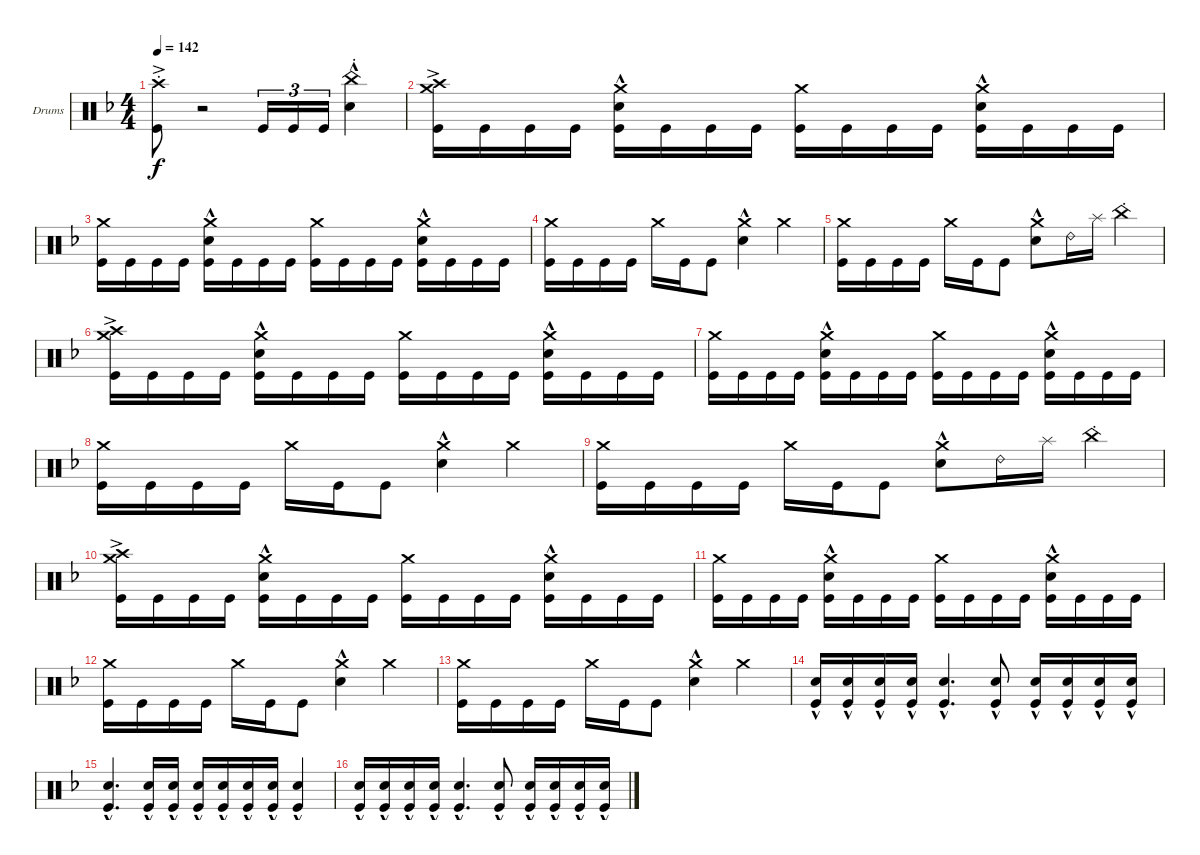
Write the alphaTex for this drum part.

\bracketExtendMode groupsimilarinstruments
\firstSystemTrackNameOrientation horizontal
\otherSystemsTrackNameOrientation horizontal
\track ("Drumkit" "Drums") {instrument percussion}
\staff {score}
\articulation defaults
\ts (4 4)
\tempo 142
\clef neutral
\ks dminor
("Kick (hit)" "Crash high (hit)"{ac st}).8{dy f} r.2 "Kick (hit)".16{tu (3 2)} "Kick (hit)".16{tu (3 2)} "Kick (hit)".16{tu (3 2)} ("Snare (hit) 2"{hac} "China (hit)"{st}).4 |
("Kick (hit)" "Crash medium (hit)" "Crash high (hit)"{ac}).16 "Kick (hit)".16 "Kick (hit)".16 "Kick (hit)".16 ("Kick (hit)" "Crash medium (hit)" "Snare (hit) 2"{hac}).16 "Kick (hit)".16 "Kick (hit)".16 "Kick (hit)".16 ("Kick (hit)" "Crash medium (hit)").16 "Kick (hit)".16 "Kick (hit)".16 "Kick (hit)".16 ("Kick (hit)" "Crash medium (hit)" "Snare (hit) 2"{hac}).16 "Kick (hit)".16 "Kick (hit)".16 "Kick (hit)".16 |
("Kick (hit)" "Crash medium (hit)").16 "Kick (hit)".16 "Kick (hit)".16 "Kick (hit)".16 ("Kick (hit)" "Crash medium (hit)" "Snare (hit) 2"{hac}).16 "Kick (hit)".16 "Kick (hit)".16 "Kick (hit)".16 ("Kick (hit)" "Crash medium (hit)").16 "Kick (hit)".16 "Kick (hit)".16 "Kick (hit)".16 ("Kick (hit)" "Crash medium (hit)" "Snare (hit) 2"{hac}).16 "Kick (hit)".16 "Kick (hit)".16 "Kick (hit)".16 |
("Kick (hit)" "Crash medium (hit)").16 "Kick (hit)".16 "Kick (hit)".16 "Kick (hit)".16 "Crash medium (hit)".16 "Kick (hit)".16 "Kick (hit)".8 ("Snare (hit) 2"{hac} "Crash medium (hit)").4 "Crash medium (hit)".4 |
("Kick (hit)" "Crash medium (hit)").16 "Kick (hit)".16 "Kick (hit)".16 "Kick (hit)".16 "Crash medium (hit)".16 "Kick (hit)".16 "Kick (hit)".8 ("Snare (hit) 2"{hac} "Crash medium (hit)").8 "Ride (bell) 2".16 "Splash (hit)".16 "China (hit)"{st}.4 |
("Kick (hit)" "Crash medium (hit)" "Crash high (hit)"{ac}).16 "Kick (hit)".16 "Kick (hit)".16 "Kick (hit)".16 ("Kick (hit)" "Crash medium (hit)" "Snare (hit) 2"{hac}).16 "Kick (hit)".16 "Kick (hit)".16 "Kick (hit)".16 ("Kick (hit)" "Crash medium (hit)").16 "Kick (hit)".16 "Kick (hit)".16 "Kick (hit)".16 ("Kick (hit)" "Crash medium (hit)" "Snare (hit) 2"{hac}).16 "Kick (hit)".16 "Kick (hit)".16 "Kick (hit)".16 |
("Kick (hit)" "Crash medium (hit)").16 "Kick (hit)".16 "Kick (hit)".16 "Kick (hit)".16 ("Kick (hit)" "Crash medium (hit)" "Snare (hit) 2"{hac}).16 "Kick (hit)".16 "Kick (hit)".16 "Kick (hit)".16 ("Kick (hit)" "Crash medium (hit)").16 "Kick (hit)".16 "Kick (hit)".16 "Kick (hit)".16 ("Kick (hit)" "Crash medium (hit)" "Snare (hit) 2"{hac}).16 "Kick (hit)".16 "Kick (hit)".16 "Kick (hit)".16 |
("Kick (hit)" "Crash medium (hit)").16 "Kick (hit)".16 "Kick (hit)".16 "Kick (hit)".16 "Crash medium (hit)".16 "Kick (hit)".16 "Kick (hit)".8 ("Snare (hit) 2"{hac} "Crash medium (hit)").4 "Crash medium (hit)".4 |
("Kick (hit)" "Crash medium (hit)").16 "Kick (hit)".16 "Kick (hit)".16 "Kick (hit)".16 "Crash medium (hit)".16 "Kick (hit)".16 "Kick (hit)".8 ("Snare (hit) 2"{hac} "Crash medium (hit)").8 "Ride (bell) 2".16 "Splash (hit)".16 "China (hit)"{st}.4 |
("Kick (hit)" "Crash medium (hit)" "Crash high (hit)"{ac}).16 "Kick (hit)".16 "Kick (hit)".16 "Kick (hit)".16 ("Kick (hit)" "Crash medium (hit)" "Snare (hit) 2"{hac}).16 "Kick (hit)".16 "Kick (hit)".16 "Kick (hit)".16 ("Kick (hit)" "Crash medium (hit)").16 "Kick (hit)".16 "Kick (hit)".16 "Kick (hit)".16 ("Kick (hit)" "Crash medium (hit)" "Snare (hit) 2"{hac}).16 "Kick (hit)".16 "Kick (hit)".16 "Kick (hit)".16 |
("Kick (hit)" "Crash medium (hit)").16 "Kick (hit)".16 "Kick (hit)".16 "Kick (hit)".16 ("Kick (hit)" "Crash medium (hit)" "Snare (hit) 2"{hac}).16 "Kick (hit)".16 "Kick (hit)".16 "Kick (hit)".16 ("Kick (hit)" "Crash medium (hit)").16 "Kick (hit)".16 "Kick (hit)".16 "Kick (hit)".16 ("Kick (hit)" "Crash medium (hit)" "Snare (hit) 2"{hac}).16 "Kick (hit)".16 "Kick (hit)".16 "Kick (hit)".16 |
("Kick (hit)" "Crash medium (hit)").16 "Kick (hit)".16 "Kick (hit)".16 "Kick (hit)".16 "Crash medium (hit)".16 "Kick (hit)".16 "Kick (hit)".8 ("Snare (hit) 2"{hac} "Crash medium (hit)").4 "Crash medium (hit)".4 |
("Kick (hit)" "Crash medium (hit)").16 "Kick (hit)".16 "Kick (hit)".16 "Kick (hit)".16 "Crash medium (hit)".16 "Kick (hit)".16 "Kick (hit)".8 ("Snare (hit) 2"{hac} "Crash medium (hit)").4 "Crash medium (hit)".4 |
\scale
0.333333 ("Snare (hit) 2"{hac} "Kick (hit)").16 ("Snare (hit) 2"{hac} "Kick (hit)").16 ("Snare (hit) 2"{hac} "Kick (hit)").16 ("Snare (hit) 2"{hac} "Kick (hit)").16 ("Snare (hit) 2"{hac} "Kick (hit)").4{d} ("Snare (hit) 2"{hac} "Kick (hit)").8 ("Snare (hit) 2"{hac} "Kick (hit)").16 ("Snare (hit) 2"{hac} "Kick (hit)").16 ("Snare (hit) 2"{hac} "Kick (hit)").16 ("Snare (hit) 2"{hac} "Kick (hit)").16 |
\scale
0.333333 ("Snare (hit) 2"{hac} "Kick (hit)").4{d} ("Snare (hit) 2"{hac} "Kick (hit)").16 ("Snare (hit) 2"{hac} "Kick (hit)").16 ("Snare (hit) 2"{hac} "Kick (hit)").16 ("Snare (hit) 2"{hac} "Kick (hit)").16 ("Snare (hit) 2"{hac} "Kick (hit)").16 ("Snare (hit) 2"{hac} "Kick (hit)").16 ("Snare (hit) 2"{hac} "Kick (hit)").4 |
\scale
0.333333 ("Snare (hit) 2"{hac} "Kick (hit)").16 ("Snare (hit) 2"{hac} "Kick (hit)").16 ("Snare (hit) 2"{hac} "Kick (hit)").16 ("Snare (hit) 2"{hac} "Kick (hit)").16 ("Snare (hit) 2"{hac} "Kick (hit)").4{d} ("Snare (hit) 2"{hac} "Kick (hit)").8 ("Snare (hit) 2"{hac} "Kick (hit)").16 ("Snare (hit) 2"{hac} "Kick (hit)").16 ("Snare (hit) 2"{hac} "Kick (hit)").16 ("Snare (hit) 2"{hac} "Kick (hit)").16
